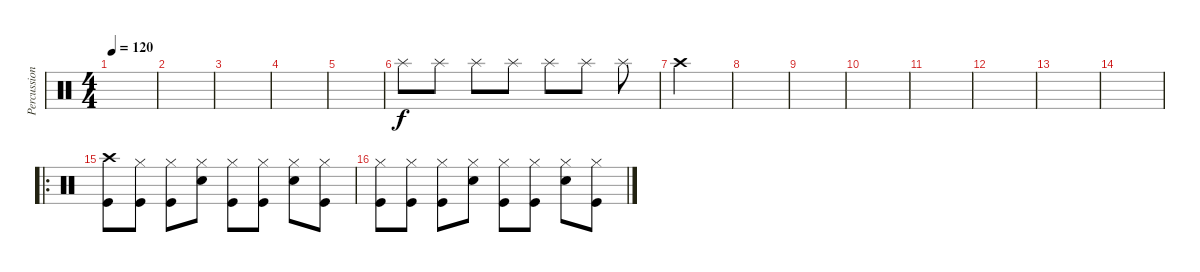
\track ("Percussions" "Percussion") {instrument percussion}
\staff {score}
\articulation defaults
\ts (4 4)
\tempo 120
\clef neutral
\ks c
|
|
|
|
|
"Splash (hit)".8 "Splash (hit)".8 "Splash (hit)".8 "Splash (hit)".8 "Splash (hit)".8 "Splash (hit)".8 "Splash (hit)".8 |
"Crash high (hit)".2 |
|
|
|
|
|
|
|
\ro
("Crash high (hit)" "Kick (hit)").8 ("Hi-Hat (closed)" "Kick (hit)").8 ("Hi-Hat (closed)" "Kick (hit)").8 ("Hi-Hat (closed)" "Electric Snare (hit)").8 ("Hi-Hat (closed)" "Kick (hit)").8 ("Hi-Hat (closed)" "Kick (hit)").8 ("Hi-Hat (closed)" "Electric Snare (hit)").8 ("Hi-Hat (closed)" "Kick (hit)").8 |
("Hi-Hat (closed)" "Kick (hit)").8 ("Hi-Hat (closed)" "Kick (hit)").8 ("Hi-Hat (closed)" "Kick (hit)").8 ("Hi-Hat (closed)" "Electric Snare (hit)").8 ("Hi-Hat (closed)" "Kick (hit)").8 ("Hi-Hat (closed)" "Kick (hit)").8 ("Hi-Hat (closed)" "Electric Snare (hit)").8 ("Hi-Hat (closed)" "Kick (hit)").8
